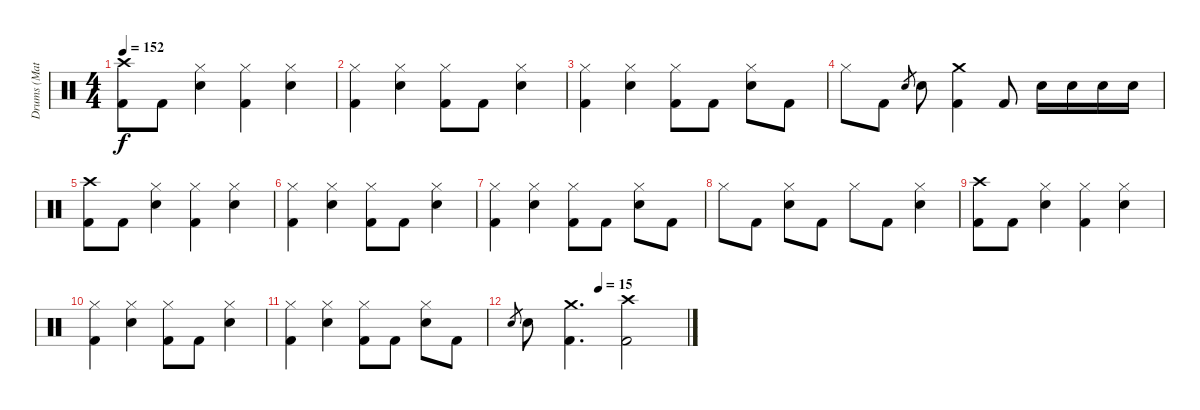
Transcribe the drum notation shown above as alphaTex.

\track ("Drums (Matt)" "Drums (Mat") {instrument percussion}
\staff {score}
\articulation defaults
\ts (4 4)
\tempo 152
\clef neutral
\ks c
("Crash high (hit)" "Kick (hit) 2").8{dy f} "Kick (hit) 2".8 ("Hi-Hat (closed)" "Snare (hit) 2").4 ("Hi-Hat (closed)" "Kick (hit) 2").4 ("Hi-Hat (closed)" "Snare (hit) 2").4 |
("Hi-Hat (closed)" "Kick (hit) 2").4 ("Hi-Hat (closed)" "Snare (hit) 2").4 ("Hi-Hat (closed)" "Kick (hit) 2").8 "Kick (hit) 2".8 ("Hi-Hat (closed)" "Snare (hit) 2").4 |
("Hi-Hat (closed)" "Kick (hit) 2").4 ("Hi-Hat (closed)" "Snare (hit) 2").4 ("Hi-Hat (closed)" "Kick (hit) 2").8 "Kick (hit) 2".8 ("Hi-Hat (closed)" "Snare (hit) 2").8 "Kick (hit) 2".8 |
"Hi-Hat (closed)".8 "Kick (hit) 2".8 "Snare (hit) 2".8{gr} "Snare (hit) 2".8 ("Crash medium (hit)" "Kick (hit) 2").4 "Kick (hit) 2".8 "Snare (hit) 2".16 "Snare (hit) 2".16 "Snare (hit) 2".16 "Snare (hit) 2".16 |
("Crash high (hit)" "Kick (hit) 2").8 "Kick (hit) 2".8 ("Hi-Hat (closed)" "Snare (hit) 2").4 ("Hi-Hat (closed)" "Kick (hit) 2").4 ("Hi-Hat (closed)" "Snare (hit) 2").4 |
("Hi-Hat (closed)" "Kick (hit) 2").4 ("Hi-Hat (closed)" "Snare (hit) 2").4 ("Hi-Hat (closed)" "Kick (hit) 2").8 "Kick (hit) 2".8 ("Hi-Hat (closed)" "Snare (hit) 2").4 |
("Hi-Hat (closed)" "Kick (hit) 2").4 ("Hi-Hat (closed)" "Snare (hit) 2").4 ("Hi-Hat (closed)" "Kick (hit) 2").8 "Kick (hit) 2".8 ("Hi-Hat (closed)" "Snare (hit) 2").8 "Kick (hit) 2".8 |
"Hi-Hat (closed)".8 "Kick (hit) 2".8 ("Hi-Hat (closed)" "Snare (hit) 2").8 "Kick (hit) 2".8 "Hi-Hat (closed)".8 "Kick (hit) 2".8 ("Hi-Hat (closed)" "Snare (hit) 2").4 |
("Crash high (hit)" "Kick (hit) 2").8 "Kick (hit) 2".8 ("Hi-Hat (closed)" "Snare (hit) 2").4 ("Hi-Hat (closed)" "Kick (hit) 2").4 ("Hi-Hat (closed)" "Snare (hit) 2").4 |
("Hi-Hat (closed)" "Kick (hit) 2").4 ("Hi-Hat (closed)" "Snare (hit) 2").4 ("Hi-Hat (closed)" "Kick (hit) 2").8 "Kick (hit) 2".8 ("Hi-Hat (closed)" "Snare (hit) 2").4 |
("Hi-Hat (closed)" "Kick (hit) 2").4 ("Hi-Hat (closed)" "Snare (hit) 2").4 ("Hi-Hat (closed)" "Kick (hit) 2").8 "Kick (hit) 2".8 ("Hi-Hat (closed)" "Snare (hit) 2").8 "Kick (hit) 2".8 |
\tempo (15 0.5)
"Snare (hit) 2".8{gr} "Snare (hit) 2".8 ("Crash medium (hit)" "Kick (hit) 2").4{d} ("Crash high (hit)" "Kick (hit) 2").2
